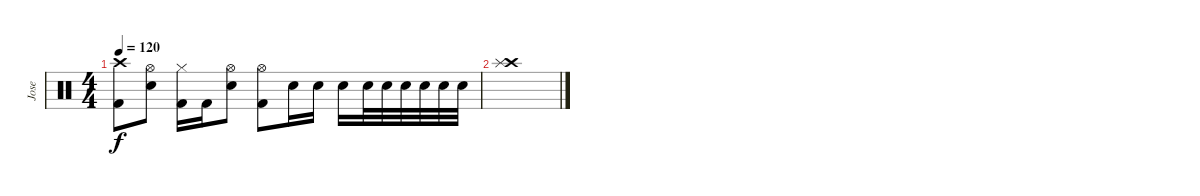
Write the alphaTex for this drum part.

\track ("Jose" "Jose") {instrument percussion}
\staff {score}
\articulation defaults
\ts (4 4)
\tempo 120
\clef neutral
\ks c
("Crash high (hit)" "Kick (hit) 2").8{dy f} ("Hi-Hat (open)" "Electric Snare (hit)").8 ("Hi-Hat (closed)" "Kick (hit) 2").16 "Kick (hit) 2".16 ("Hi-Hat (open)" "Electric Snare (hit)").8 ("Hi-Hat (open)" "Kick (hit) 2").8 "Electric Snare (hit)".16 "Electric Snare (hit)".16 "Electric Snare (hit)".16 "Electric Snare (hit)".32 "Electric Snare (hit)".32 "Electric Snare (hit)".32 "Electric Snare (hit)".32 "Electric Snare (hit)".32 "Electric Snare (hit)".32 |
("Crash high (hit)" "Splash (hit)").1
